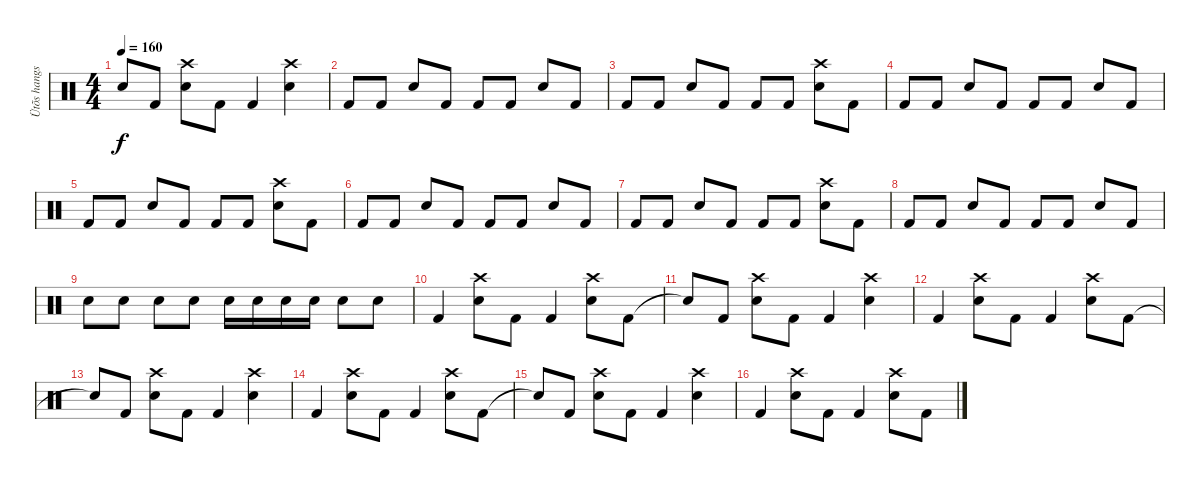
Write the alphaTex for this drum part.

\track ("Ütõs hangszer" "Ütõs hangs") {instrument percussion}
\staff {score}
\articulation defaults
\ts (4 4)
\tempo 160
\clef neutral
\ks c "Snare (hit)"{t}.8{dy f} "Kick (hit) 2".8
("Crash high (hit)" "Electric Snare (hit)").8 "Kick (hit) 2".8 "Kick (hit) 2".4 ("Crash high (hit)" "Electric Snare (hit)").4 |
"Kick (hit) 2".8 "Kick (hit) 2".8 "Electric Snare (hit)".8 "Kick (hit) 2".8 "Kick (hit) 2".8 "Kick (hit) 2".8 "Electric Snare (hit)".8 "Kick (hit) 2".8 |
"Kick (hit) 2".8 "Kick (hit) 2".8 "Electric Snare (hit)".8 "Kick (hit) 2".8 "Kick (hit) 2".8 "Kick (hit) 2".8 ("Crash high (hit)" "Electric Snare (hit)").8 "Kick (hit) 2".8 |
"Kick (hit) 2".8 "Kick (hit) 2".8 "Electric Snare (hit)".8 "Kick (hit) 2".8 "Kick (hit) 2".8 "Kick (hit) 2".8 "Electric Snare (hit)".8 "Kick (hit) 2".8 |
"Kick (hit) 2".8 "Kick (hit) 2".8 "Electric Snare (hit)".8 "Kick (hit) 2".8 "Kick (hit) 2".8 "Kick (hit) 2".8 ("Crash high (hit)" "Electric Snare (hit)").8 "Kick (hit) 2".8 |
"Kick (hit) 2".8 "Kick (hit) 2".8 "Electric Snare (hit)".8 "Kick (hit) 2".8 "Kick (hit) 2".8 "Kick (hit) 2".8 "Electric Snare (hit)".8 "Kick (hit) 2".8 |
"Kick (hit) 2".8 "Kick (hit) 2".8 "Electric Snare (hit)".8 "Kick (hit) 2".8 "Kick (hit) 2".8 "Kick (hit) 2".8 ("Crash high (hit)" "Electric Snare (hit)").8 "Kick (hit) 2".8 |
"Kick (hit) 2".8 "Kick (hit) 2".8 "Electric Snare (hit)".8 "Kick (hit) 2".8 "Kick (hit) 2".8 "Kick (hit) 2".8 "Electric Snare (hit)".8 "Kick (hit) 2".8 |
"Electric Snare (hit)".8 "Electric Snare (hit)".8 "Electric Snare (hit)".8 "Electric Snare (hit)".8 "Electric Snare (hit)".16 "Electric Snare (hit)".16 "Electric Snare (hit)".16 "Electric Snare (hit)".16 "Electric Snare (hit)".8 "Electric Snare (hit)".8 |
"Kick (hit) 2".4 ("Crash high (hit)" "Electric Snare (hit)").8 "Kick (hit) 2".8 "Kick (hit) 2".4 ("Crash high (hit)" "Electric Snare (hit)").8 "Kick (hit) 2".8 |
"Snare (hit)"{t}.8 "Kick (hit) 2".8 ("Crash high (hit)" "Electric Snare (hit)").8 "Kick (hit) 2".8 "Kick (hit) 2".4 ("Crash high (hit)" "Electric Snare (hit)").4 |
"Kick (hit) 2".4 ("Crash high (hit)" "Electric Snare (hit)").8 "Kick (hit) 2".8 "Kick (hit) 2".4 ("Crash high (hit)" "Electric Snare (hit)").8 "Kick (hit) 2".8 |
"Snare (hit)"{t}.8 "Kick (hit) 2".8 ("Crash high (hit)" "Electric Snare (hit)").8 "Kick (hit) 2".8 "Kick (hit) 2".4 ("Crash high (hit)" "Electric Snare (hit)").4 |
"Kick (hit) 2".4 ("Crash high (hit)" "Electric Snare (hit)").8 "Kick (hit) 2".8 "Kick (hit) 2".4 ("Crash high (hit)" "Electric Snare (hit)").8 "Kick (hit) 2".8 |
"Snare (hit)"{t}.8 "Kick (hit) 2".8 ("Crash high (hit)" "Electric Snare (hit)").8 "Kick (hit) 2".8 "Kick (hit) 2".4 ("Crash high (hit)" "Electric Snare (hit)").4 |
"Kick (hit) 2".4 ("Crash high (hit)" "Electric Snare (hit)").8 "Kick (hit) 2".8 "Kick (hit) 2".4 ("Crash high (hit)" "Electric Snare (hit)").8 "Kick (hit) 2".8
